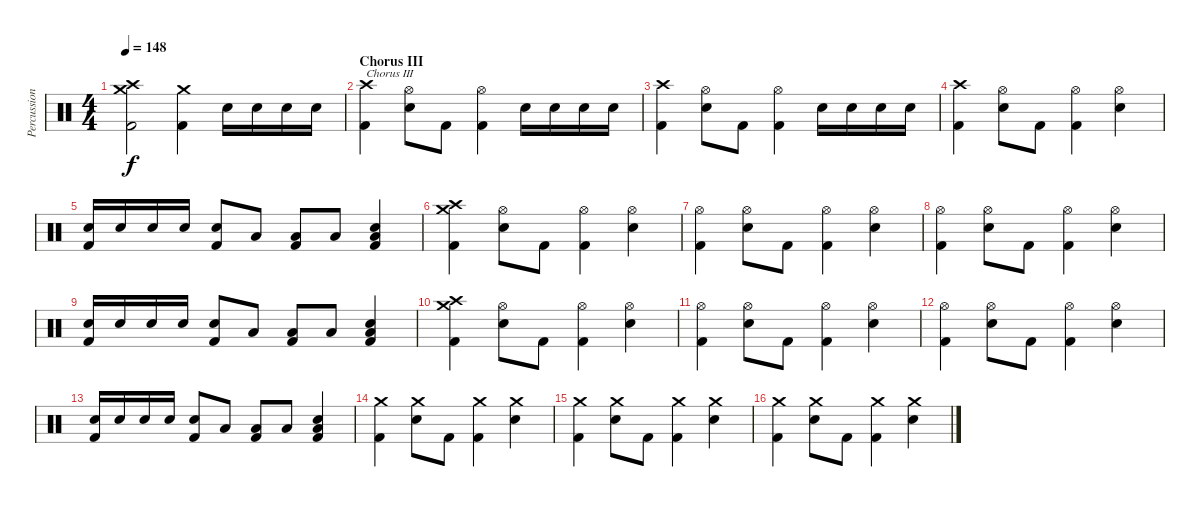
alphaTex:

\track ("Percussion" "Percussion") {instrument percussion}
\staff {score}
\articulation defaults
\ts (4 4)
\tempo 148
\clef neutral
\ks c
("Crash medium (hit)" "Crash high (hit)" "Kick (hit) 2").2{dy f} ("Crash medium (hit)" "Kick (hit) 2").4 "Electric Snare (hit)".16 "Electric Snare (hit)".16 "Electric Snare (hit)".16 "Electric Snare (hit)".16 |
\section ("" "Chorus III")
("Crash high (hit)" "Kick (hit) 2").4{txt "Chorus III"} ("Hi-Hat (open)" "Electric Snare (hit)").8 "Kick (hit) 2".8 ("Hi-Hat (open)" "Kick (hit) 2").4 "Electric Snare (hit)".16 "Electric Snare (hit)".16 "Electric Snare (hit)".16 "Electric Snare (hit)".16 |
("Crash high (hit)" "Kick (hit) 2").4 ("Hi-Hat (open)" "Electric Snare (hit)").8 "Kick (hit) 2".8 ("Hi-Hat (open)" "Kick (hit) 2").4 "Electric Snare (hit)".16 "Electric Snare (hit)".16 "Electric Snare (hit)".16 "Electric Snare (hit)".16 |
("Crash high (hit)" "Kick (hit) 2").4 ("Hi-Hat (open)" "Electric Snare (hit)").8 "Kick (hit) 2".8 ("Hi-Hat (open)" "Kick (hit) 2").4 ("Hi-Hat (open)" "Electric Snare (hit)").4 |
("Electric Snare (hit)" "Kick (hit) 2").16 "Electric Snare (hit)".16 "Electric Snare (hit)".16 "Electric Snare (hit)".16 ("Electric Snare (hit)" "Kick (hit) 2").8 "Low Tom (hit)".8 ("Low Floor Tom (hit)" "Kick (hit) 2").8 "Low Floor Tom (hit)".8 ("Electric Snare (hit)" "Low Floor Tom (hit)" "Kick (hit) 2").4 |
("Crash medium (hit)" "Crash high (hit)" "Kick (hit) 2").4 ("Hi-Hat (open)" "Electric Snare (hit)").8 "Kick (hit) 2".8 ("Hi-Hat (open)" "Kick (hit) 2").4 ("Hi-Hat (open)" "Electric Snare (hit)").4 |
("Hi-Hat (open)" "Kick (hit) 2").4 ("Hi-Hat (open)" "Electric Snare (hit)").8 "Kick (hit) 2".8 ("Hi-Hat (open)" "Kick (hit) 2").4 ("Hi-Hat (open)" "Electric Snare (hit)").4 |
("Hi-Hat (open)" "Kick (hit) 2").4 ("Hi-Hat (open)" "Electric Snare (hit)").8 "Kick (hit) 2".8 ("Hi-Hat (open)" "Kick (hit) 2").4 ("Hi-Hat (open)" "Electric Snare (hit)").4 |
("Electric Snare (hit)" "Kick (hit) 2").16 "Electric Snare (hit)".16 "Electric Snare (hit)".16 "Electric Snare (hit)".16 ("Electric Snare (hit)" "Kick (hit) 2").8 "Low Tom (hit)".8 ("Low Floor Tom (hit)" "Kick (hit) 2").8 "Low Floor Tom (hit)".8 ("Electric Snare (hit)" "Low Floor Tom (hit)" "Kick (hit) 2").4 |
("Crash medium (hit)" "Crash high (hit)" "Kick (hit) 2").4 ("Hi-Hat (open)" "Electric Snare (hit)").8 "Kick (hit) 2".8 ("Hi-Hat (open)" "Kick (hit) 2").4 ("Hi-Hat (open)" "Electric Snare (hit)").4 |
("Hi-Hat (open)" "Kick (hit) 2").4 ("Hi-Hat (open)" "Electric Snare (hit)").8 "Kick (hit) 2".8 ("Hi-Hat (open)" "Kick (hit) 2").4 ("Hi-Hat (open)" "Electric Snare (hit)").4 |
("Hi-Hat (open)" "Kick (hit) 2").4 ("Hi-Hat (open)" "Electric Snare (hit)").8 "Kick (hit) 2".8 ("Hi-Hat (open)" "Kick (hit) 2").4 ("Hi-Hat (open)" "Electric Snare (hit)").4 |
("Electric Snare (hit)" "Kick (hit) 2").16 "Electric Snare (hit)".16 "Electric Snare (hit)".16 "Electric Snare (hit)".16 ("Electric Snare (hit)" "Kick (hit) 2").8 "Low Tom (hit)".8 ("Low Floor Tom (hit)" "Kick (hit) 2").8 "Low Floor Tom (hit)".8 ("Electric Snare (hit)" "Low Floor Tom (hit)" "Kick (hit) 2").4 |
("Crash medium (hit)" "Kick (hit) 2").4 ("Crash medium (hit)" "Electric Snare (hit)").8 "Kick (hit) 2".8 ("Crash medium (hit)" "Kick (hit) 2").4 ("Crash medium (hit)" "Electric Snare (hit)").4 |
("Crash medium (hit)" "Kick (hit) 2").4 ("Crash medium (hit)" "Electric Snare (hit)").8 "Kick (hit) 2".8 ("Crash medium (hit)" "Kick (hit) 2").4 ("Crash medium (hit)" "Electric Snare (hit)").4 |
("Crash medium (hit)" "Kick (hit) 2").4 ("Crash medium (hit)" "Electric Snare (hit)").8 "Kick (hit) 2".8 ("Crash medium (hit)" "Kick (hit) 2").4 ("Crash medium (hit)" "Electric Snare (hit)").4
